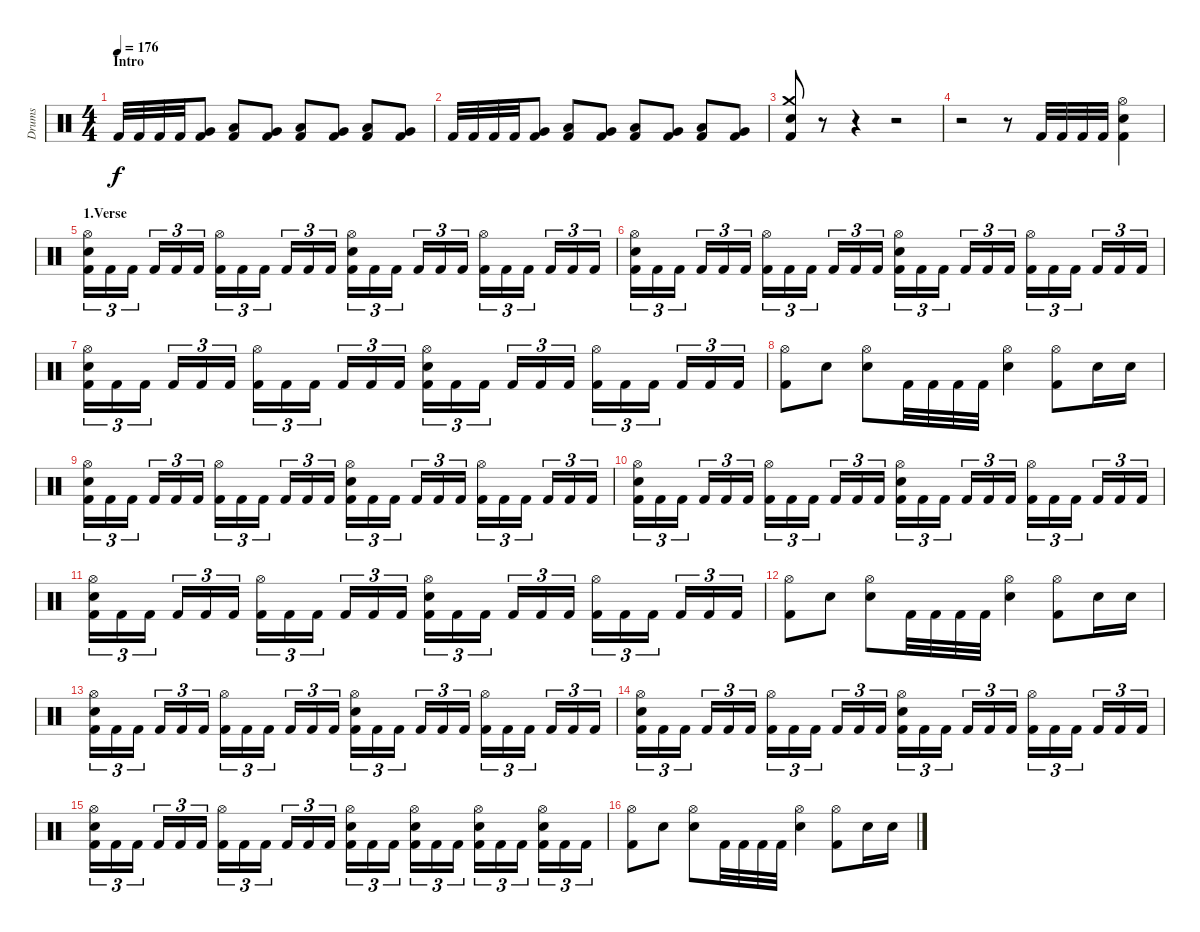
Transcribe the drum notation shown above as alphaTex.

\track ("Drums" "Drums") {instrument percussion}
\staff {score}
\articulation defaults
\ts (4 4)
\section ("" "Intro")
\tempo 176
\clef neutral
\ks c "Kick (hit) 2".32{dy f} "Kick (hit) 2".32 "Kick (hit) 2".32 "Kick (hit) 2".32
("Very Low Tom (hit)" "Kick (hit) 2").8 ("Low Floor Tom (hit)" "Kick (hit) 2").8 ("Very Low Tom (hit)" "Kick (hit) 2").8 ("Low Floor Tom (hit)" "Kick (hit) 2").8 ("Very Low Tom (hit)" "Kick (hit) 2").8 ("Low Floor Tom (hit)" "Kick (hit) 2").8 ("Very Low Tom (hit)" "Kick (hit) 2").8 |
"Kick (hit) 2".32 "Kick (hit) 2".32 "Kick (hit) 2".32 "Kick (hit) 2".32 ("Very Low Tom (hit)" "Kick (hit) 2").8 ("Low Floor Tom (hit)" "Kick (hit) 2").8 ("Very Low Tom (hit)" "Kick (hit) 2").8 ("Low Floor Tom (hit)" "Kick (hit) 2").8 ("Very Low Tom (hit)" "Kick (hit) 2").8 ("Low Floor Tom (hit)" "Kick (hit) 2").8 ("Very Low Tom (hit)" "Kick (hit) 2").8 |
("Crash medium (hit)" "Snare (hit) 2" "Kick (hit) 2").8 r.8 r.4 r.2 |
r.2 r.8 "Kick (hit) 2".32 "Kick (hit) 2".32 "Kick (hit) 2".32 "Kick (hit) 2".32 ("Hi-Hat (open)" "Snare (hit) 2" "Kick (hit) 2").4 |
\section ("" "1.Verse")
("Hi-Hat (open)" "Snare (hit) 2" "Kick (hit) 2").16{tu (3 2)} "Kick (hit) 2".16{tu (3 2)} "Kick (hit) 2".16{tu (3 2)} "Kick (hit) 2".16{tu (3 2)} "Kick (hit) 2".16{tu (3 2)} "Kick (hit) 2".16{tu (3 2)} ("Hi-Hat (open)" "Kick (hit) 2").16{tu (3 2)} "Kick (hit) 2".16{tu (3 2)} "Kick (hit) 2".16{tu (3 2)} "Kick (hit) 2".16{tu (3 2)} "Kick (hit) 2".16{tu (3 2)} "Kick (hit) 2".16{tu (3 2)} ("Hi-Hat (open)" "Snare (hit) 2" "Kick (hit) 2").16{tu (3 2)} "Kick (hit) 2".16{tu (3 2)} "Kick (hit) 2".16{tu (3 2)} "Kick (hit) 2".16{tu (3 2)} "Kick (hit) 2".16{tu (3 2)} "Kick (hit) 2".16{tu (3 2)} ("Hi-Hat (open)" "Kick (hit) 2").16{tu (3 2)} "Kick (hit) 2".16{tu (3 2)} "Kick (hit) 2".16{tu (3 2)} "Kick (hit) 2".16{tu (3 2)} "Kick (hit) 2".16{tu (3 2)} "Kick (hit) 2".16{tu (3 2)} |
("Hi-Hat (open)" "Snare (hit) 2" "Kick (hit) 2").16{tu (3 2)} "Kick (hit) 2".16{tu (3 2)} "Kick (hit) 2".16{tu (3 2)} "Kick (hit) 2".16{tu (3 2)} "Kick (hit) 2".16{tu (3 2)} "Kick (hit) 2".16{tu (3 2)} ("Hi-Hat (open)" "Kick (hit) 2").16{tu (3 2)} "Kick (hit) 2".16{tu (3 2)} "Kick (hit) 2".16{tu (3 2)} "Kick (hit) 2".16{tu (3 2)} "Kick (hit) 2".16{tu (3 2)} "Kick (hit) 2".16{tu (3 2)} ("Hi-Hat (open)" "Snare (hit) 2" "Kick (hit) 2").16{tu (3 2)} "Kick (hit) 2".16{tu (3 2)} "Kick (hit) 2".16{tu (3 2)} "Kick (hit) 2".16{tu (3 2)} "Kick (hit) 2".16{tu (3 2)} "Kick (hit) 2".16{tu (3 2)} ("Hi-Hat (open)" "Kick (hit) 2").16{tu (3 2)} "Kick (hit) 2".16{tu (3 2)} "Kick (hit) 2".16{tu (3 2)} "Kick (hit) 2".16{tu (3 2)} "Kick (hit) 2".16{tu (3 2)} "Kick (hit) 2".16{tu (3 2)} |
("Hi-Hat (open)" "Snare (hit) 2" "Kick (hit) 2").16{tu (3 2)} "Kick (hit) 2".16{tu (3 2)} "Kick (hit) 2".16{tu (3 2)} "Kick (hit) 2".16{tu (3 2)} "Kick (hit) 2".16{tu (3 2)} "Kick (hit) 2".16{tu (3 2)} ("Hi-Hat (open)" "Kick (hit) 2").16{tu (3 2)} "Kick (hit) 2".16{tu (3 2)} "Kick (hit) 2".16{tu (3 2)} "Kick (hit) 2".16{tu (3 2)} "Kick (hit) 2".16{tu (3 2)} "Kick (hit) 2".16{tu (3 2)} ("Hi-Hat (open)" "Snare (hit) 2" "Kick (hit) 2").16{tu (3 2)} "Kick (hit) 2".16{tu (3 2)} "Kick (hit) 2".16{tu (3 2)} "Kick (hit) 2".16{tu (3 2)} "Kick (hit) 2".16{tu (3 2)} "Kick (hit) 2".16{tu (3 2)} ("Hi-Hat (open)" "Kick (hit) 2").16{tu (3 2)} "Kick (hit) 2".16{tu (3 2)} "Kick (hit) 2".16{tu (3 2)} "Kick (hit) 2".16{tu (3 2)} "Kick (hit) 2".16{tu (3 2)} "Kick (hit) 2".16{tu (3 2)} |
("Hi-Hat (open)" "Kick (hit) 2").8 "Snare (hit) 2".8 ("Hi-Hat (open)" "Snare (hit) 2").8 "Kick (hit) 2".32 "Kick (hit) 2".32 "Kick (hit) 2".32 "Kick (hit) 2".32 ("Hi-Hat (open)" "Snare (hit) 2").4 ("Hi-Hat (open)" "Kick (hit) 2").8 "Snare (hit) 2".16 "Snare (hit) 2".16 |
("Hi-Hat (open)" "Snare (hit) 2" "Kick (hit) 2").16{tu (3 2)} "Kick (hit) 2".16{tu (3 2)} "Kick (hit) 2".16{tu (3 2)} "Kick (hit) 2".16{tu (3 2)} "Kick (hit) 2".16{tu (3 2)} "Kick (hit) 2".16{tu (3 2)} ("Hi-Hat (open)" "Kick (hit) 2").16{tu (3 2)} "Kick (hit) 2".16{tu (3 2)} "Kick (hit) 2".16{tu (3 2)} "Kick (hit) 2".16{tu (3 2)} "Kick (hit) 2".16{tu (3 2)} "Kick (hit) 2".16{tu (3 2)} ("Hi-Hat (open)" "Snare (hit) 2" "Kick (hit) 2").16{tu (3 2)} "Kick (hit) 2".16{tu (3 2)} "Kick (hit) 2".16{tu (3 2)} "Kick (hit) 2".16{tu (3 2)} "Kick (hit) 2".16{tu (3 2)} "Kick (hit) 2".16{tu (3 2)} ("Hi-Hat (open)" "Kick (hit) 2").16{tu (3 2)} "Kick (hit) 2".16{tu (3 2)} "Kick (hit) 2".16{tu (3 2)} "Kick (hit) 2".16{tu (3 2)} "Kick (hit) 2".16{tu (3 2)} "Kick (hit) 2".16{tu (3 2)} |
("Hi-Hat (open)" "Snare (hit) 2" "Kick (hit) 2").16{tu (3 2)} "Kick (hit) 2".16{tu (3 2)} "Kick (hit) 2".16{tu (3 2)} "Kick (hit) 2".16{tu (3 2)} "Kick (hit) 2".16{tu (3 2)} "Kick (hit) 2".16{tu (3 2)} ("Hi-Hat (open)" "Kick (hit) 2").16{tu (3 2)} "Kick (hit) 2".16{tu (3 2)} "Kick (hit) 2".16{tu (3 2)} "Kick (hit) 2".16{tu (3 2)} "Kick (hit) 2".16{tu (3 2)} "Kick (hit) 2".16{tu (3 2)} ("Hi-Hat (open)" "Snare (hit) 2" "Kick (hit) 2").16{tu (3 2)} "Kick (hit) 2".16{tu (3 2)} "Kick (hit) 2".16{tu (3 2)} "Kick (hit) 2".16{tu (3 2)} "Kick (hit) 2".16{tu (3 2)} "Kick (hit) 2".16{tu (3 2)} ("Hi-Hat (open)" "Kick (hit) 2").16{tu (3 2)} "Kick (hit) 2".16{tu (3 2)} "Kick (hit) 2".16{tu (3 2)} "Kick (hit) 2".16{tu (3 2)} "Kick (hit) 2".16{tu (3 2)} "Kick (hit) 2".16{tu (3 2)} |
("Hi-Hat (open)" "Snare (hit) 2" "Kick (hit) 2").16{tu (3 2)} "Kick (hit) 2".16{tu (3 2)} "Kick (hit) 2".16{tu (3 2)} "Kick (hit) 2".16{tu (3 2)} "Kick (hit) 2".16{tu (3 2)} "Kick (hit) 2".16{tu (3 2)} ("Hi-Hat (open)" "Kick (hit) 2").16{tu (3 2)} "Kick (hit) 2".16{tu (3 2)} "Kick (hit) 2".16{tu (3 2)} "Kick (hit) 2".16{tu (3 2)} "Kick (hit) 2".16{tu (3 2)} "Kick (hit) 2".16{tu (3 2)} ("Hi-Hat (open)" "Snare (hit) 2" "Kick (hit) 2").16{tu (3 2)} "Kick (hit) 2".16{tu (3 2)} "Kick (hit) 2".16{tu (3 2)} "Kick (hit) 2".16{tu (3 2)} "Kick (hit) 2".16{tu (3 2)} "Kick (hit) 2".16{tu (3 2)} ("Hi-Hat (open)" "Kick (hit) 2").16{tu (3 2)} "Kick (hit) 2".16{tu (3 2)} "Kick (hit) 2".16{tu (3 2)} "Kick (hit) 2".16{tu (3 2)} "Kick (hit) 2".16{tu (3 2)} "Kick (hit) 2".16{tu (3 2)} |
("Hi-Hat (open)" "Kick (hit) 2").8 "Snare (hit) 2".8 ("Hi-Hat (open)" "Snare (hit) 2").8 "Kick (hit) 2".32 "Kick (hit) 2".32 "Kick (hit) 2".32 "Kick (hit) 2".32 ("Hi-Hat (open)" "Snare (hit) 2").4 ("Hi-Hat (open)" "Kick (hit) 2").8 "Snare (hit) 2".16 "Snare (hit) 2".16 |
("Hi-Hat (open)" "Snare (hit) 2" "Kick (hit) 2").16{tu (3 2)} "Kick (hit) 2".16{tu (3 2)} "Kick (hit) 2".16{tu (3 2)} "Kick (hit) 2".16{tu (3 2)} "Kick (hit) 2".16{tu (3 2)} "Kick (hit) 2".16{tu (3 2)} ("Hi-Hat (open)" "Kick (hit) 2").16{tu (3 2)} "Kick (hit) 2".16{tu (3 2)} "Kick (hit) 2".16{tu (3 2)} "Kick (hit) 2".16{tu (3 2)} "Kick (hit) 2".16{tu (3 2)} "Kick (hit) 2".16{tu (3 2)} ("Hi-Hat (open)" "Snare (hit) 2" "Kick (hit) 2").16{tu (3 2)} "Kick (hit) 2".16{tu (3 2)} "Kick (hit) 2".16{tu (3 2)} "Kick (hit) 2".16{tu (3 2)} "Kick (hit) 2".16{tu (3 2)} "Kick (hit) 2".16{tu (3 2)} ("Hi-Hat (open)" "Kick (hit) 2").16{tu (3 2)} "Kick (hit) 2".16{tu (3 2)} "Kick (hit) 2".16{tu (3 2)} "Kick (hit) 2".16{tu (3 2)} "Kick (hit) 2".16{tu (3 2)} "Kick (hit) 2".16{tu (3 2)} |
("Hi-Hat (open)" "Snare (hit) 2" "Kick (hit) 2").16{tu (3 2)} "Kick (hit) 2".16{tu (3 2)} "Kick (hit) 2".16{tu (3 2)} "Kick (hit) 2".16{tu (3 2)} "Kick (hit) 2".16{tu (3 2)} "Kick (hit) 2".16{tu (3 2)} ("Hi-Hat (open)" "Kick (hit) 2").16{tu (3 2)} "Kick (hit) 2".16{tu (3 2)} "Kick (hit) 2".16{tu (3 2)} "Kick (hit) 2".16{tu (3 2)} "Kick (hit) 2".16{tu (3 2)} "Kick (hit) 2".16{tu (3 2)} ("Hi-Hat (open)" "Snare (hit) 2" "Kick (hit) 2").16{tu (3 2)} "Kick (hit) 2".16{tu (3 2)} "Kick (hit) 2".16{tu (3 2)} "Kick (hit) 2".16{tu (3 2)} "Kick (hit) 2".16{tu (3 2)} "Kick (hit) 2".16{tu (3 2)} ("Hi-Hat (open)" "Kick (hit) 2").16{tu (3 2)} "Kick (hit) 2".16{tu (3 2)} "Kick (hit) 2".16{tu (3 2)} "Kick (hit) 2".16{tu (3 2)} "Kick (hit) 2".16{tu (3 2)} "Kick (hit) 2".16{tu (3 2)} |
("Hi-Hat (open)" "Snare (hit) 2" "Kick (hit) 2").16{tu (3 2)} "Kick (hit) 2".16{tu (3 2)} "Kick (hit) 2".16{tu (3 2)} "Kick (hit) 2".16{tu (3 2)} "Kick (hit) 2".16{tu (3 2)} "Kick (hit) 2".16{tu (3 2)} ("Hi-Hat (open)" "Kick (hit) 2").16{tu (3 2)} "Kick (hit) 2".16{tu (3 2)} "Kick (hit) 2".16{tu (3 2)} "Kick (hit) 2".16{tu (3 2)} "Kick (hit) 2".16{tu (3 2)} "Kick (hit) 2".16{tu (3 2)} ("Hi-Hat (open)" "Snare (hit) 2" "Kick (hit) 2").16{tu (3 2)} "Kick (hit) 2".16{tu (3 2)} "Kick (hit) 2".16{tu (3 2)} ("Hi-Hat (open)" "Snare (hit) 2" "Kick (hit) 2").16{tu (3 2)} "Kick (hit) 2".16{tu (3 2)} "Kick (hit) 2".16{tu (3 2)} ("Hi-Hat (open)" "Snare (hit) 2" "Kick (hit) 2").16{tu (3 2)} "Kick (hit) 2".16{tu (3 2)} "Kick (hit) 2".16{tu (3 2)} ("Hi-Hat (open)" "Snare (hit) 2" "Kick (hit) 2").16{tu (3 2)} "Kick (hit) 2".16{tu (3 2)} "Kick (hit) 2".16{tu (3 2)} |
("Hi-Hat (open)" "Kick (hit) 2").8 "Snare (hit) 2".8 ("Hi-Hat (open)" "Snare (hit) 2").8 "Kick (hit) 2".32 "Kick (hit) 2".32 "Kick (hit) 2".32 "Kick (hit) 2".32 ("Hi-Hat (open)" "Snare (hit) 2").4 ("Hi-Hat (open)" "Kick (hit) 2").8 "Snare (hit) 2".16 "Snare (hit) 2".16
